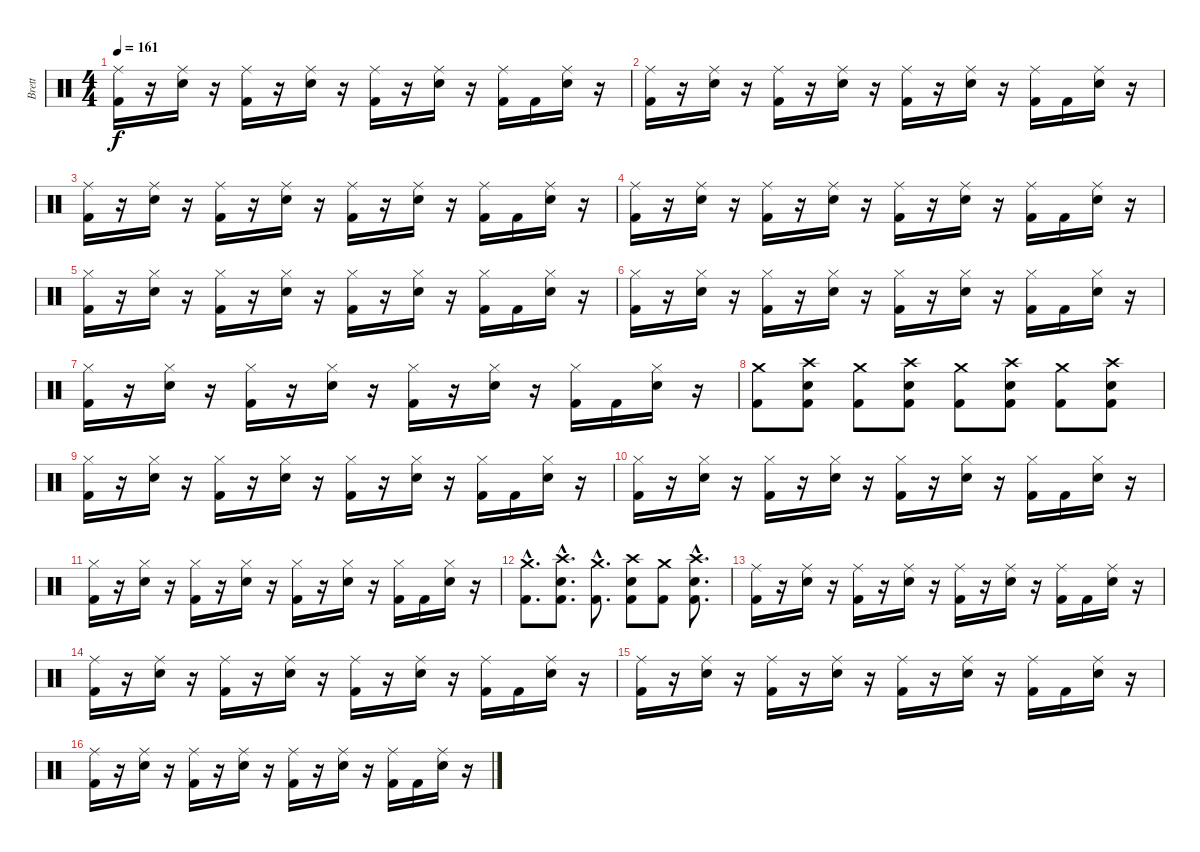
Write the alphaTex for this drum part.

\track ("Brett" "Brett") {instrument percussion}
\staff {score}
\articulation defaults
\ts (4 4)
\tempo 161
\clef neutral
\ks c
("Ride (middle)" "Kick (hit) 2").16{dy f} r.16 ("Ride (middle)" "Electric Snare (hit)").16 r.16 ("Ride (middle)" "Kick (hit) 2").16 r.16 ("Ride (middle)" "Electric Snare (hit)").16 r.16 ("Ride (middle)" "Kick (hit) 2").16 r.16 ("Ride (middle)" "Electric Snare (hit)").16 r.16 ("Ride (middle)" "Kick (hit) 2").16 "Kick (hit) 2".16 ("Ride (middle)" "Electric Snare (hit)").16 r.16 |
("Ride (middle)" "Kick (hit) 2").16 r.16 ("Ride (middle)" "Electric Snare (hit)").16 r.16 ("Ride (middle)" "Kick (hit) 2").16 r.16 ("Ride (middle)" "Electric Snare (hit)").16 r.16 ("Ride (middle)" "Kick (hit) 2").16 r.16 ("Ride (middle)" "Electric Snare (hit)").16 r.16 ("Ride (middle)" "Kick (hit) 2").16 "Kick (hit) 2".16 ("Ride (middle)" "Electric Snare (hit)").16 r.16 |
("Ride (middle)" "Kick (hit) 2").16 r.16 ("Ride (middle)" "Electric Snare (hit)").16 r.16 ("Ride (middle)" "Kick (hit) 2").16 r.16 ("Ride (middle)" "Electric Snare (hit)").16 r.16 ("Ride (middle)" "Kick (hit) 2").16 r.16 ("Ride (middle)" "Electric Snare (hit)").16 r.16 ("Ride (middle)" "Kick (hit) 2").16 "Kick (hit) 2".16 ("Ride (middle)" "Electric Snare (hit)").16 r.16 |
("Ride (middle)" "Kick (hit) 2").16 r.16 ("Ride (middle)" "Electric Snare (hit)").16 r.16 ("Ride (middle)" "Kick (hit) 2").16 r.16 ("Ride (middle)" "Electric Snare (hit)").16 r.16 ("Ride (middle)" "Kick (hit) 2").16 r.16 ("Ride (middle)" "Electric Snare (hit)").16 r.16 ("Ride (middle)" "Kick (hit) 2").16 "Kick (hit) 2".16 ("Ride (middle)" "Electric Snare (hit)").16 r.16 |
("Hi-Hat (closed)" "Kick (hit) 2").16 r.16 ("Hi-Hat (closed)" "Electric Snare (hit)").16 r.16 ("Hi-Hat (closed)" "Kick (hit) 2").16 r.16 ("Hi-Hat (closed)" "Electric Snare (hit)").16 r.16 ("Hi-Hat (closed)" "Kick (hit) 2").16 r.16 ("Hi-Hat (closed)" "Electric Snare (hit)").16 r.16 ("Hi-Hat (closed)" "Kick (hit) 2").16 "Kick (hit) 2".16 ("Hi-Hat (closed)" "Electric Snare (hit)").16 r.16 |
("Hi-Hat (closed)" "Kick (hit) 2").16 r.16 ("Hi-Hat (closed)" "Electric Snare (hit)").16 r.16 ("Hi-Hat (closed)" "Kick (hit) 2").16 r.16 ("Hi-Hat (closed)" "Electric Snare (hit)").16 r.16 ("Hi-Hat (closed)" "Kick (hit) 2").16 r.16 ("Hi-Hat (closed)" "Electric Snare (hit)").16 r.16 ("Hi-Hat (closed)" "Kick (hit) 2").16 "Kick (hit) 2".16 ("Hi-Hat (closed)" "Electric Snare (hit)").16 r.16 |
("Hi-Hat (closed)" "Kick (hit) 2").16 r.16 ("Hi-Hat (closed)" "Electric Snare (hit)").16 r.16 ("Hi-Hat (closed)" "Kick (hit) 2").16 r.16 ("Hi-Hat (closed)" "Electric Snare (hit)").16 r.16 ("Hi-Hat (closed)" "Kick (hit) 2").16 r.16 ("Hi-Hat (closed)" "Electric Snare (hit)").16 r.16 ("Hi-Hat (closed)" "Kick (hit) 2").16 "Kick (hit) 2".16 ("Hi-Hat (closed)" "Electric Snare (hit)").16 r.16 |
("Crash medium (hit)" "Kick (hit) 2").8 ("Crash high (hit)" "Electric Snare (hit)" "Kick (hit) 2").8 ("Crash medium (hit)" "Kick (hit) 2").8 ("Crash high (hit)" "Electric Snare (hit)" "Kick (hit) 2").8 ("Crash medium (hit)" "Kick (hit) 2").8 ("Crash high (hit)" "Electric Snare (hit)" "Kick (hit) 2").8 ("Crash medium (hit)" "Kick (hit) 2").8 ("Crash high (hit)" "Electric Snare (hit)" "Kick (hit) 2").8 |
("Hi-Hat (closed)" "Kick (hit) 2").16 r.16 ("Hi-Hat (closed)" "Electric Snare (hit)").16 r.16 ("Hi-Hat (closed)" "Kick (hit) 2").16 r.16 ("Hi-Hat (closed)" "Electric Snare (hit)").16 r.16 ("Hi-Hat (closed)" "Kick (hit) 2").16 r.16 ("Hi-Hat (closed)" "Electric Snare (hit)").16 r.16 ("Hi-Hat (closed)" "Kick (hit) 2").16 "Kick (hit) 2".16 ("Hi-Hat (closed)" "Electric Snare (hit)").16 r.16 |
("Hi-Hat (closed)" "Kick (hit) 2").16 r.16 ("Hi-Hat (closed)" "Electric Snare (hit)").16 r.16 ("Hi-Hat (closed)" "Kick (hit) 2").16 r.16 ("Hi-Hat (closed)" "Electric Snare (hit)").16 r.16 ("Hi-Hat (closed)" "Kick (hit) 2").16 r.16 ("Hi-Hat (closed)" "Electric Snare (hit)").16 r.16 ("Hi-Hat (closed)" "Kick (hit) 2").16 "Kick (hit) 2".16 ("Hi-Hat (closed)" "Electric Snare (hit)").16 r.16 |
("Hi-Hat (closed)" "Kick (hit) 2").16 r.16 ("Hi-Hat (closed)" "Electric Snare (hit)").16 r.16 ("Hi-Hat (closed)" "Kick (hit) 2").16 r.16 ("Hi-Hat (closed)" "Electric Snare (hit)").16 r.16 ("Hi-Hat (closed)" "Kick (hit) 2").16 r.16 ("Hi-Hat (closed)" "Electric Snare (hit)").16 r.16 ("Hi-Hat (closed)" "Kick (hit) 2").16 "Kick (hit) 2".16 ("Hi-Hat (closed)" "Electric Snare (hit)").16 r.16 |
("Crash medium (hit)"{hac} "Kick (hit) 2"{hac}).8{d} ("Crash high (hit)"{hac} "Electric Snare (hit)"{hac} "Kick (hit) 2"{hac}).8{d} ("Crash medium (hit)"{hac} "Kick (hit) 2"{hac}).8{d} ("Crash high (hit)" "Electric Snare (hit)" "Kick (hit) 2").8 ("Crash medium (hit)" "Kick (hit) 2").8 ("Crash high (hit)"{hac} "Electric Snare (hit)"{hac} "Kick (hit) 2"{hac}).8{d} |
("Ride (middle)" "Kick (hit) 2").16 r.16 ("Ride (middle)" "Electric Snare (hit)").16 r.16 ("Ride (middle)" "Kick (hit) 2").16 r.16 ("Ride (middle)" "Electric Snare (hit)").16 r.16 ("Ride (middle)" "Kick (hit) 2").16 r.16 ("Ride (middle)" "Electric Snare (hit)").16 r.16 ("Ride (middle)" "Kick (hit) 2").16 "Kick (hit) 2".16 ("Ride (middle)" "Electric Snare (hit)").16 r.16 |
("Ride (middle)" "Kick (hit) 2").16 r.16 ("Ride (middle)" "Electric Snare (hit)").16 r.16 ("Ride (middle)" "Kick (hit) 2").16 r.16 ("Ride (middle)" "Electric Snare (hit)").16 r.16 ("Ride (middle)" "Kick (hit) 2").16 r.16 ("Ride (middle)" "Electric Snare (hit)").16 r.16 ("Ride (middle)" "Kick (hit) 2").16 "Kick (hit) 2".16 ("Ride (middle)" "Electric Snare (hit)").16 r.16 |
("Ride (middle)" "Kick (hit) 2").16 r.16 ("Ride (middle)" "Electric Snare (hit)").16 r.16 ("Ride (middle)" "Kick (hit) 2").16 r.16 ("Ride (middle)" "Electric Snare (hit)").16 r.16 ("Ride (middle)" "Kick (hit) 2").16 r.16 ("Ride (middle)" "Electric Snare (hit)").16 r.16 ("Ride (middle)" "Kick (hit) 2").16 "Kick (hit) 2".16 ("Ride (middle)" "Electric Snare (hit)").16 r.16 |
("Ride (middle)" "Kick (hit) 2").16 r.16 ("Ride (middle)" "Electric Snare (hit)").16 r.16 ("Ride (middle)" "Kick (hit) 2").16 r.16 ("Ride (middle)" "Electric Snare (hit)").16 r.16 ("Ride (middle)" "Kick (hit) 2").16 r.16 ("Ride (middle)" "Electric Snare (hit)").16 r.16 ("Ride (middle)" "Kick (hit) 2").16 "Kick (hit) 2".16 ("Ride (middle)" "Electric Snare (hit)").16 r.16
